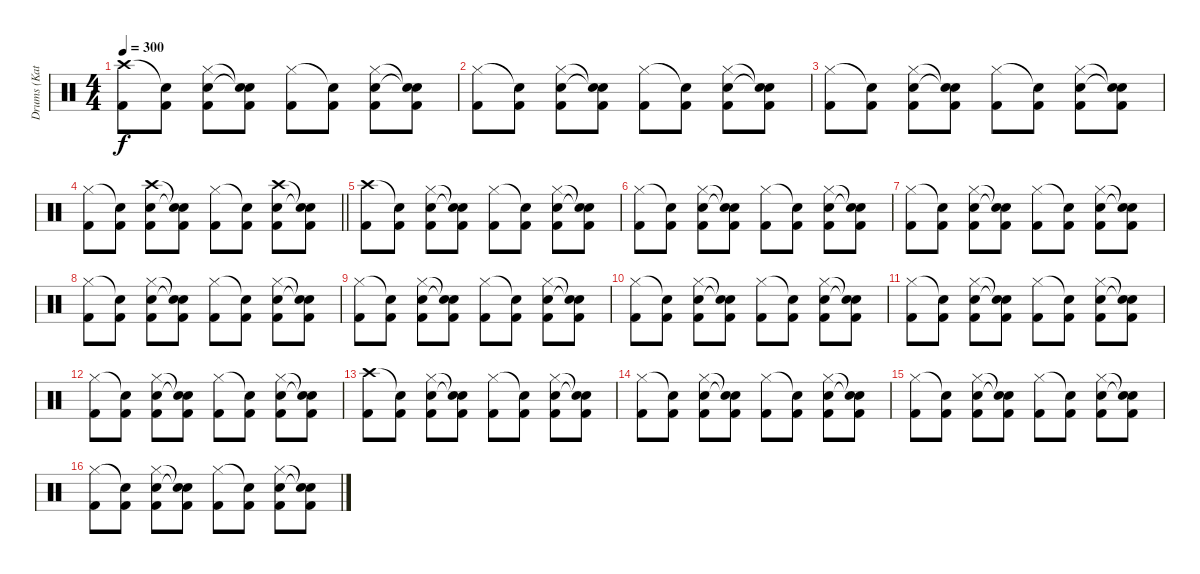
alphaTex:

\track ("Drums (Katsuji)" "Drums (Kat") {instrument percussion}
\staff {score}
\articulation defaults
\ts (4 4)
\tempo 300
\clef neutral
\ks c
("Crash high (hit)" "Kick (hit) 2").8{dy f} ("Snare (hit)"{t} "Kick (hit) 2").8 ("Hi-Hat (closed)" "Snare (hit) 2" "Kick (hit) 2").8 ("Snare (hit)"{t} "Snare (hit)"{t} "Kick (hit) 2").8 ("Hi-Hat (closed)" "Kick (hit) 2").8 ("Snare (hit)"{t} "Kick (hit) 2").8 ("Hi-Hat (closed)" "Snare (hit) 2" "Kick (hit) 2").8 ("Snare (hit)"{t} "Snare (hit)"{t} "Kick (hit) 2").8 |
("Hi-Hat (closed)" "Kick (hit) 2").8 ("Snare (hit)"{t} "Kick (hit) 2").8 ("Hi-Hat (closed)" "Snare (hit) 2" "Kick (hit) 2").8 ("Snare (hit)"{t} "Snare (hit)"{t} "Kick (hit) 2").8 ("Hi-Hat (closed)" "Kick (hit) 2").8 ("Snare (hit)"{t} "Kick (hit) 2").8 ("Hi-Hat (closed)" "Snare (hit) 2" "Kick (hit) 2").8 ("Snare (hit)"{t} "Snare (hit)"{t} "Kick (hit) 2").8 |
("Hi-Hat (closed)" "Kick (hit) 2").8 ("Snare (hit)"{t} "Kick (hit) 2").8 ("Hi-Hat (closed)" "Snare (hit) 2" "Kick (hit) 2").8 ("Snare (hit)"{t} "Snare (hit)"{t} "Kick (hit) 2").8 ("Hi-Hat (closed)" "Kick (hit) 2").8 ("Snare (hit)"{t} "Kick (hit) 2").8 ("Hi-Hat (closed)" "Snare (hit) 2" "Kick (hit) 2").8 ("Snare (hit)"{t} "Snare (hit)"{t} "Kick (hit) 2").8 |
\barLineRight lightlight
("Hi-Hat (closed)" "Kick (hit) 2").8 ("Snare (hit)"{t} "Kick (hit) 2").8 ("Crash high (hit)" "Snare (hit) 2" "Kick (hit) 2").8 ("Snare (hit)"{t} "Snare (hit)"{t} "Kick (hit) 2").8 ("Hi-Hat (closed)" "Kick (hit) 2").8 ("Snare (hit)"{t} "Kick (hit) 2").8 ("Crash high (hit)" "Snare (hit) 2" "Kick (hit) 2").8 ("Snare (hit)"{t} "Snare (hit)"{t} "Kick (hit) 2").8 |
("Crash high (hit)" "Kick (hit) 2").8 ("Snare (hit)"{t} "Kick (hit) 2").8 ("Hi-Hat (closed)" "Snare (hit) 2" "Kick (hit) 2").8 ("Snare (hit)"{t} "Snare (hit)"{t} "Kick (hit) 2").8 ("Hi-Hat (closed)" "Kick (hit) 2").8 ("Snare (hit)"{t} "Kick (hit) 2").8 ("Hi-Hat (closed)" "Snare (hit) 2" "Kick (hit) 2").8 ("Snare (hit)"{t} "Snare (hit)"{t} "Kick (hit) 2").8 |
("Hi-Hat (closed)" "Kick (hit) 2").8 ("Snare (hit)"{t} "Kick (hit) 2").8 ("Hi-Hat (closed)" "Snare (hit) 2" "Kick (hit) 2").8 ("Snare (hit)"{t} "Snare (hit)"{t} "Kick (hit) 2").8 ("Hi-Hat (closed)" "Kick (hit) 2").8 ("Snare (hit)"{t} "Kick (hit) 2").8 ("Hi-Hat (closed)" "Snare (hit) 2" "Kick (hit) 2").8 ("Snare (hit)"{t} "Snare (hit)"{t} "Kick (hit) 2").8 |
("Hi-Hat (closed)" "Kick (hit) 2").8 ("Snare (hit)"{t} "Kick (hit) 2").8 ("Hi-Hat (closed)" "Snare (hit) 2" "Kick (hit) 2").8 ("Snare (hit)"{t} "Snare (hit)"{t} "Kick (hit) 2").8 ("Hi-Hat (closed)" "Kick (hit) 2").8 ("Snare (hit)"{t} "Kick (hit) 2").8 ("Hi-Hat (closed)" "Snare (hit) 2" "Kick (hit) 2").8 ("Snare (hit)"{t} "Snare (hit)"{t} "Kick (hit) 2").8 |
("Hi-Hat (closed)" "Kick (hit) 2").8 ("Snare (hit)"{t} "Kick (hit) 2").8 ("Hi-Hat (closed)" "Snare (hit) 2" "Kick (hit) 2").8 ("Snare (hit)"{t} "Snare (hit)"{t} "Kick (hit) 2").8 ("Hi-Hat (closed)" "Kick (hit) 2").8 ("Snare (hit)"{t} "Kick (hit) 2").8 ("Hi-Hat (closed)" "Snare (hit) 2" "Kick (hit) 2").8 ("Snare (hit)"{t} "Snare (hit)"{t} "Kick (hit) 2").8 |
("Hi-Hat (closed)" "Kick (hit) 2").8 ("Snare (hit)"{t} "Kick (hit) 2").8 ("Hi-Hat (closed)" "Snare (hit) 2" "Kick (hit) 2").8 ("Snare (hit)"{t} "Snare (hit)"{t} "Kick (hit) 2").8 ("Hi-Hat (closed)" "Kick (hit) 2").8 ("Snare (hit)"{t} "Kick (hit) 2").8 ("Hi-Hat (closed)" "Snare (hit) 2" "Kick (hit) 2").8 ("Snare (hit)"{t} "Snare (hit)"{t} "Kick (hit) 2").8 |
("Hi-Hat (closed)" "Kick (hit) 2").8 ("Snare (hit)"{t} "Kick (hit) 2").8 ("Hi-Hat (closed)" "Snare (hit) 2" "Kick (hit) 2").8 ("Snare (hit)"{t} "Snare (hit)"{t} "Kick (hit) 2").8 ("Hi-Hat (closed)" "Kick (hit) 2").8 ("Snare (hit)"{t} "Kick (hit) 2").8 ("Hi-Hat (closed)" "Snare (hit) 2" "Kick (hit) 2").8 ("Snare (hit)"{t} "Snare (hit)"{t} "Kick (hit) 2").8 |
("Hi-Hat (closed)" "Kick (hit) 2").8 ("Snare (hit)"{t} "Kick (hit) 2").8 ("Hi-Hat (closed)" "Snare (hit) 2" "Kick (hit) 2").8 ("Snare (hit)"{t} "Snare (hit)"{t} "Kick (hit) 2").8 ("Hi-Hat (closed)" "Kick (hit) 2").8 ("Snare (hit)"{t} "Kick (hit) 2").8 ("Hi-Hat (closed)" "Snare (hit) 2" "Kick (hit) 2").8 ("Snare (hit)"{t} "Snare (hit)"{t} "Kick (hit) 2").8 |
("Hi-Hat (closed)" "Kick (hit) 2").8 ("Snare (hit)"{t} "Kick (hit) 2").8 ("Hi-Hat (closed)" "Snare (hit) 2" "Kick (hit) 2").8 ("Snare (hit)"{t} "Snare (hit)"{t} "Kick (hit) 2").8 ("Hi-Hat (closed)" "Kick (hit) 2").8 ("Snare (hit)"{t} "Kick (hit) 2").8 ("Hi-Hat (closed)" "Snare (hit) 2" "Kick (hit) 2").8 ("Snare (hit)"{t} "Snare (hit)"{t} "Kick (hit) 2").8 |
("Crash high (hit)" "Kick (hit) 2").8 ("Snare (hit)"{t} "Kick (hit) 2").8 ("Hi-Hat (closed)" "Snare (hit) 2" "Kick (hit) 2").8 ("Snare (hit)"{t} "Snare (hit)"{t} "Kick (hit) 2").8 ("Hi-Hat (closed)" "Kick (hit) 2").8 ("Snare (hit)"{t} "Kick (hit) 2").8 ("Hi-Hat (closed)" "Snare (hit) 2" "Kick (hit) 2").8 ("Snare (hit)"{t} "Snare (hit)"{t} "Kick (hit) 2").8 |
("Hi-Hat (closed)" "Kick (hit) 2").8 ("Snare (hit)"{t} "Kick (hit) 2").8 ("Hi-Hat (closed)" "Snare (hit) 2" "Kick (hit) 2").8 ("Snare (hit)"{t} "Snare (hit)"{t} "Kick (hit) 2").8 ("Hi-Hat (closed)" "Kick (hit) 2").8 ("Snare (hit)"{t} "Kick (hit) 2").8 ("Hi-Hat (closed)" "Snare (hit) 2" "Kick (hit) 2").8 ("Snare (hit)"{t} "Snare (hit)"{t} "Kick (hit) 2").8 |
("Hi-Hat (closed)" "Kick (hit) 2").8 ("Snare (hit)"{t} "Kick (hit) 2").8 ("Hi-Hat (closed)" "Snare (hit) 2" "Kick (hit) 2").8 ("Snare (hit)"{t} "Snare (hit)"{t} "Kick (hit) 2").8 ("Hi-Hat (closed)" "Kick (hit) 2").8 ("Snare (hit)"{t} "Kick (hit) 2").8 ("Hi-Hat (closed)" "Snare (hit) 2" "Kick (hit) 2").8 ("Snare (hit)"{t} "Snare (hit)"{t} "Kick (hit) 2").8 |
("Hi-Hat (closed)" "Kick (hit) 2").8 ("Snare (hit)"{t} "Kick (hit) 2").8 ("Hi-Hat (closed)" "Snare (hit) 2" "Kick (hit) 2").8 ("Snare (hit)"{t} "Snare (hit)"{t} "Kick (hit) 2").8 ("Hi-Hat (closed)" "Kick (hit) 2").8 ("Snare (hit)"{t} "Kick (hit) 2").8 ("Hi-Hat (closed)" "Snare (hit) 2" "Kick (hit) 2").8 ("Snare (hit)"{t} "Snare (hit)"{t} "Kick (hit) 2").8
